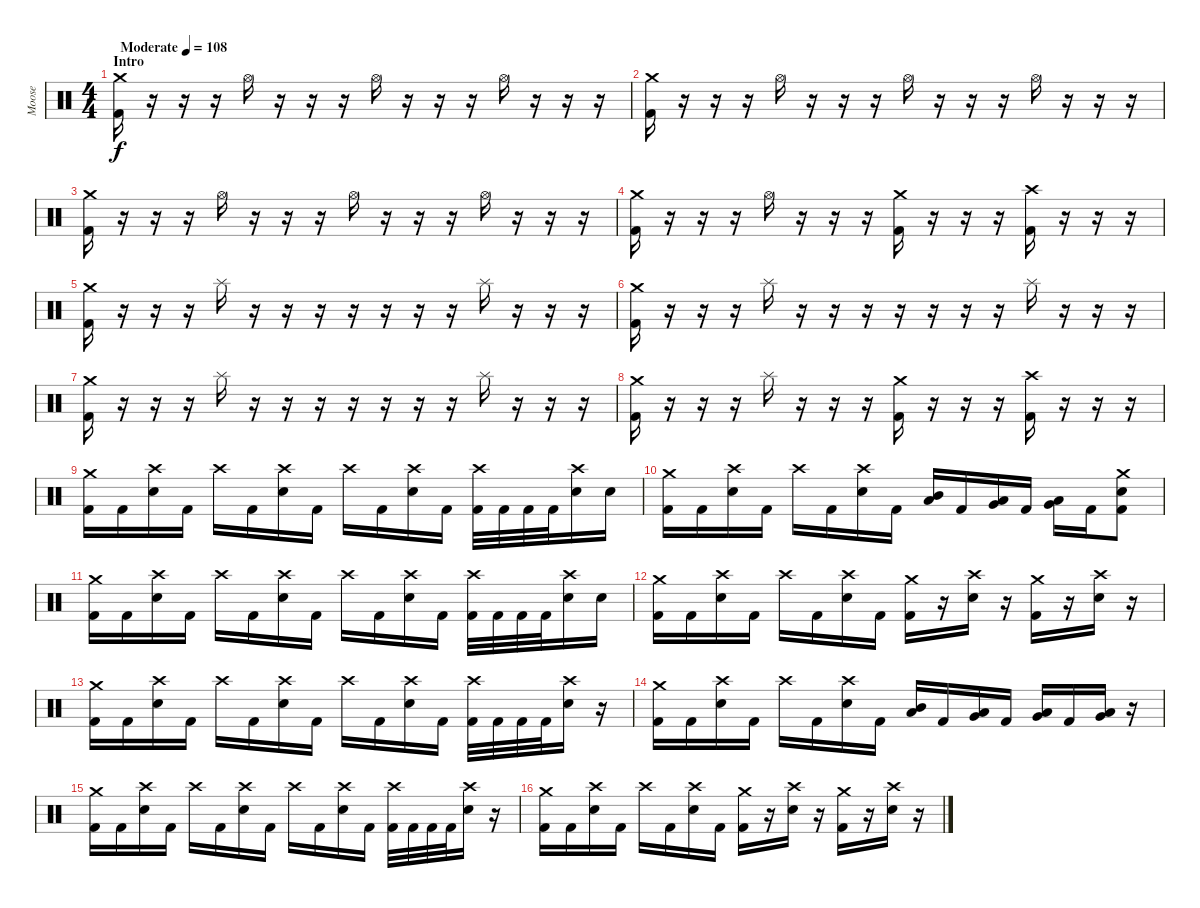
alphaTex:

\track ("Moose" "Moose") {instrument percussion}
\staff {score}
\articulation defaults
\ts (4 4)
\section ("" "Intro")
\tempo (108 "Moderate")
\clef neutral
\ks c
("Crash medium (hit)" "Kick (hit) 2").16{dy f} r.16 r.16 r.16 "Hi-Hat (open)".16 r.16 r.16 r.16 "Hi-Hat (open)".16 r.16 r.16 r.16 "Hi-Hat (open)".16 r.16 r.16 r.16 |
("Crash medium (hit)" "Kick (hit) 2").16 r.16 r.16 r.16 "Hi-Hat (open)".16 r.16 r.16 r.16 "Hi-Hat (open)".16 r.16 r.16 r.16 "Hi-Hat (open)".16 r.16 r.16 r.16 |
("Crash medium (hit)" "Kick (hit) 2").16 r.16 r.16 r.16 "Hi-Hat (open)".16 r.16 r.16 r.16 "Hi-Hat (open)".16 r.16 r.16 r.16 "Hi-Hat (open)".16 r.16 r.16 r.16 |
("Crash medium (hit)" "Kick (hit) 2").16 r.16 r.16 r.16 "Hi-Hat (open)".16 r.16 r.16 r.16 ("Crash medium (hit)" "Kick (hit) 2").16 r.16 r.16 r.16 ("Crash high (hit)" "Kick (hit) 2").16 r.16 r.16 r.16 |
("Crash medium (hit)" "Kick (hit) 2").16 r.16 r.16 r.16 "Splash (hit)".16 r.16 r.16 r.16 r.16 r.16 r.16 r.16 "Splash (hit)".16 r.16 r.16 r.16 |
("Crash medium (hit)" "Kick (hit) 2").16 r.16 r.16 r.16 "Splash (hit)".16 r.16 r.16 r.16 r.16 r.16 r.16 r.16 "Splash (hit)".16 r.16 r.16 r.16 |
("Crash medium (hit)" "Kick (hit) 2").16 r.16 r.16 r.16 "Splash (hit)".16 r.16 r.16 r.16 r.16 r.16 r.16 r.16 "Splash (hit)".16 r.16 r.16 r.16 |
("Crash medium (hit)" "Kick (hit) 2").16 r.16 r.16 r.16 "Splash (hit)".16 r.16 r.16 r.16 ("Crash medium (hit)" "Kick (hit) 2").16 r.16 r.16 r.16 ("Crash high (hit)" "Kick (hit) 2").16 r.16 r.16 r.16 |
("Crash medium (hit)" "Kick (hit) 2").16 "Kick (hit) 2".16 ("Crash high (hit)" "Electric Snare (hit)").16 "Kick (hit) 2".16 "Crash high (hit)".16 "Kick (hit) 2".16 ("Crash high (hit)" "Electric Snare (hit)").16 "Kick (hit) 2".16 "Crash high (hit)".16 "Kick (hit) 2".16 ("Crash high (hit)" "Electric Snare (hit)").16 "Kick (hit) 2".16 ("Crash high (hit)" "Kick (hit) 2").32 "Kick (hit) 2".32 "Kick (hit) 2".32 "Kick (hit) 2".32 ("Crash high (hit)" "Electric Snare (hit)").16 "Electric Snare (hit)".16 |
("Crash medium (hit)" "Kick (hit) 2").16 "Kick (hit) 2".16 ("Crash high (hit)" "Electric Snare (hit)").16 "Kick (hit) 2".16 "Crash high (hit)".16 "Kick (hit) 2".16 ("Crash high (hit)" "Electric Snare (hit)").16 "Kick (hit) 2".16 ("Mid Tom (hit)" "Low Tom (hit)").16 "Kick (hit) 2".16 ("Low Tom (hit)" "Very Low Tom (hit)").16 "Kick (hit) 2".16 ("Low Tom (hit)" "Very Low Tom (hit)").16 "Kick (hit) 2".16 ("Crash medium (hit)" "Electric Snare (hit)" "Kick (hit) 2").8 |
("Crash medium (hit)" "Kick (hit) 2").16 "Kick (hit) 2".16 ("Crash high (hit)" "Electric Snare (hit)").16 "Kick (hit) 2".16 "Crash high (hit)".16 "Kick (hit) 2".16 ("Crash high (hit)" "Electric Snare (hit)").16 "Kick (hit) 2".16 "Crash high (hit)".16 "Kick (hit) 2".16 ("Crash high (hit)" "Electric Snare (hit)").16 "Kick (hit) 2".16 ("Crash high (hit)" "Kick (hit) 2").32 "Kick (hit) 2".32 "Kick (hit) 2".32 "Kick (hit) 2".32 ("Crash high (hit)" "Electric Snare (hit)").16 "Electric Snare (hit)".16 |
("Crash medium (hit)" "Kick (hit) 2").16 "Kick (hit) 2".16 ("Crash high (hit)" "Electric Snare (hit)").16 "Kick (hit) 2".16 "Crash high (hit)".16 "Kick (hit) 2".16 ("Crash high (hit)" "Electric Snare (hit)").16 "Kick (hit) 2".16 ("Crash medium (hit)" "Kick (hit) 2").16 r.16 ("Crash high (hit)" "Electric Snare (hit)").16 r.16 ("Crash medium (hit)" "Kick (hit) 2").16 r.16 ("Crash high (hit)" "Electric Snare (hit)").16 r.16 |
("Crash medium (hit)" "Kick (hit) 2").16 "Kick (hit) 2".16 ("Crash high (hit)" "Electric Snare (hit)").16 "Kick (hit) 2".16 "Crash high (hit)".16 "Kick (hit) 2".16 ("Crash high (hit)" "Electric Snare (hit)").16 "Kick (hit) 2".16 "Crash high (hit)".16 "Kick (hit) 2".16 ("Crash high (hit)" "Electric Snare (hit)").16 "Kick (hit) 2".16 ("Crash high (hit)" "Kick (hit) 2").32 "Kick (hit) 2".32 "Kick (hit) 2".32 "Kick (hit) 2".32 ("Crash high (hit)" "Electric Snare (hit)").16 r.16 |
("Crash medium (hit)" "Kick (hit) 2").16 "Kick (hit) 2".16 ("Crash high (hit)" "Electric Snare (hit)").16 "Kick (hit) 2".16 "Crash high (hit)".16 "Kick (hit) 2".16 ("Crash high (hit)" "Electric Snare (hit)").16 "Kick (hit) 2".16 ("Mid Tom (hit)" "Low Tom (hit)").16 "Kick (hit) 2".16 ("Low Tom (hit)" "Very Low Tom (hit)").16 "Kick (hit) 2".16 ("Low Tom (hit)" "Very Low Tom (hit)").16 "Kick (hit) 2".16 ("Very Low Tom (hit)" "Low Floor Tom (hit)").16 r.16 |
("Crash medium (hit)" "Kick (hit) 2").16 "Kick (hit) 2".16 ("Crash high (hit)" "Electric Snare (hit)").16 "Kick (hit) 2".16 "Crash high (hit)".16 "Kick (hit) 2".16 ("Crash high (hit)" "Electric Snare (hit)").16 "Kick (hit) 2".16 "Crash high (hit)".16 "Kick (hit) 2".16 ("Crash high (hit)" "Electric Snare (hit)").16 "Kick (hit) 2".16 ("Crash high (hit)" "Kick (hit) 2").32 "Kick (hit) 2".32 "Kick (hit) 2".32 "Kick (hit) 2".32 ("Crash high (hit)" "Electric Snare (hit)").16 r.16 |
("Crash medium (hit)" "Kick (hit) 2").16 "Kick (hit) 2".16 ("Crash high (hit)" "Electric Snare (hit)").16 "Kick (hit) 2".16 "Crash high (hit)".16 "Kick (hit) 2".16 ("Crash high (hit)" "Electric Snare (hit)").16 "Kick (hit) 2".16 ("Crash medium (hit)" "Kick (hit) 2").16 r.16 ("Crash high (hit)" "Electric Snare (hit)").16 r.16 ("Crash medium (hit)" "Kick (hit) 2").16 r.16 ("Crash high (hit)" "Electric Snare (hit)").16 r.16
